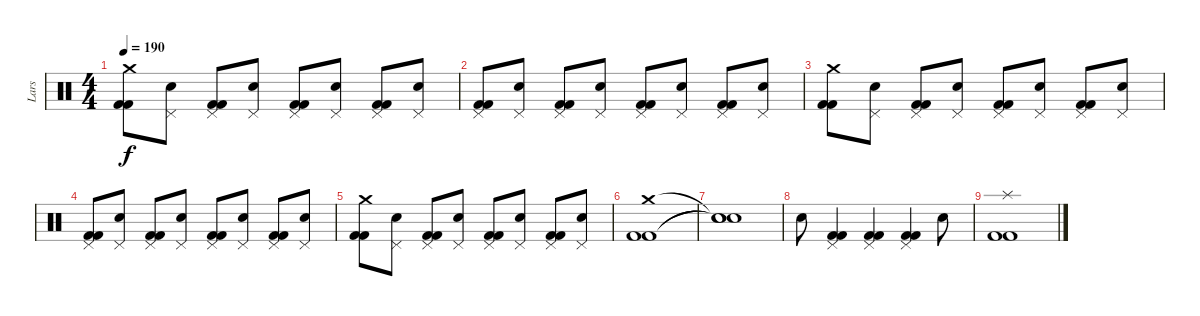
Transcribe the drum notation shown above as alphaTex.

\track ("Lars" "Lars") {instrument percussion}
\staff {score}
\articulation defaults
\ts (4 4)
\tempo 190
\clef neutral
\ks c
("Crash medium (hit)" "Kick (hit) 2" "Kick (hit) 2").8{dy f} ("Pedal Hi-Hat (hit)" "Electric Snare (hit)").8 ("Pedal Hi-Hat (hit)" "Kick (hit) 2" "Kick (hit) 2").8 ("Pedal Hi-Hat (hit)" "Electric Snare (hit)").8 ("Pedal Hi-Hat (hit)" "Kick (hit) 2" "Kick (hit) 2").8 ("Pedal Hi-Hat (hit)" "Electric Snare (hit)").8 ("Pedal Hi-Hat (hit)" "Kick (hit) 2" "Kick (hit) 2").8 ("Pedal Hi-Hat (hit)" "Electric Snare (hit)").8 |
("Pedal Hi-Hat (hit)" "Kick (hit) 2" "Kick (hit) 2").8 ("Pedal Hi-Hat (hit)" "Electric Snare (hit)").8 ("Pedal Hi-Hat (hit)" "Kick (hit) 2" "Kick (hit) 2").8 ("Pedal Hi-Hat (hit)" "Electric Snare (hit)").8 ("Pedal Hi-Hat (hit)" "Kick (hit) 2" "Kick (hit) 2").8 ("Pedal Hi-Hat (hit)" "Electric Snare (hit)").8 ("Pedal Hi-Hat (hit)" "Kick (hit) 2" "Kick (hit) 2").8 ("Pedal Hi-Hat (hit)" "Electric Snare (hit)").8 |
("Crash medium (hit)" "Kick (hit) 2" "Kick (hit) 2").8 ("Pedal Hi-Hat (hit)" "Electric Snare (hit)").8 ("Pedal Hi-Hat (hit)" "Kick (hit) 2" "Kick (hit) 2").8 ("Pedal Hi-Hat (hit)" "Electric Snare (hit)").8 ("Pedal Hi-Hat (hit)" "Kick (hit) 2" "Kick (hit) 2").8 ("Pedal Hi-Hat (hit)" "Electric Snare (hit)").8 ("Pedal Hi-Hat (hit)" "Kick (hit) 2" "Kick (hit) 2").8 ("Pedal Hi-Hat (hit)" "Electric Snare (hit)").8 |
("Pedal Hi-Hat (hit)" "Kick (hit) 2" "Kick (hit) 2").8 ("Pedal Hi-Hat (hit)" "Electric Snare (hit)").8 ("Pedal Hi-Hat (hit)" "Kick (hit) 2" "Kick (hit) 2").8 ("Pedal Hi-Hat (hit)" "Electric Snare (hit)").8 ("Pedal Hi-Hat (hit)" "Kick (hit) 2" "Kick (hit) 2").8 ("Pedal Hi-Hat (hit)" "Electric Snare (hit)").8 ("Pedal Hi-Hat (hit)" "Kick (hit) 2" "Kick (hit) 2").8 ("Pedal Hi-Hat (hit)" "Electric Snare (hit)").8 |
("Crash medium (hit)" "Kick (hit) 2" "Kick (hit) 2").8 ("Pedal Hi-Hat (hit)" "Electric Snare (hit)").8 ("Pedal Hi-Hat (hit)" "Kick (hit) 2" "Kick (hit) 2").8 ("Pedal Hi-Hat (hit)" "Electric Snare (hit)").8 ("Pedal Hi-Hat (hit)" "Kick (hit) 2" "Kick (hit) 2").8 ("Pedal Hi-Hat (hit)" "Electric Snare (hit)").8 ("Pedal Hi-Hat (hit)" "Kick (hit) 2" "Kick (hit) 2").8 ("Pedal Hi-Hat (hit)" "Electric Snare (hit)").8 |
("Crash medium (hit)" "Kick (hit) 2" "Kick (hit) 2").1 |
("Snare (hit)"{t} "Snare (hit)"{t} "Snare (hit)"{t}).1 |
"Electric Snare (hit)".8 ("Pedal Hi-Hat (hit)" "Kick (hit) 2" "Kick (hit) 2").4 ("Pedal Hi-Hat (hit)" "Kick (hit) 2" "Kick (hit) 2").4 ("Pedal Hi-Hat (hit)" "Kick (hit) 2" "Kick (hit) 2").4 "Electric Snare (hit)".8 |
("Splash (hit)" "Kick (hit) 2" "Kick (hit) 2").1
